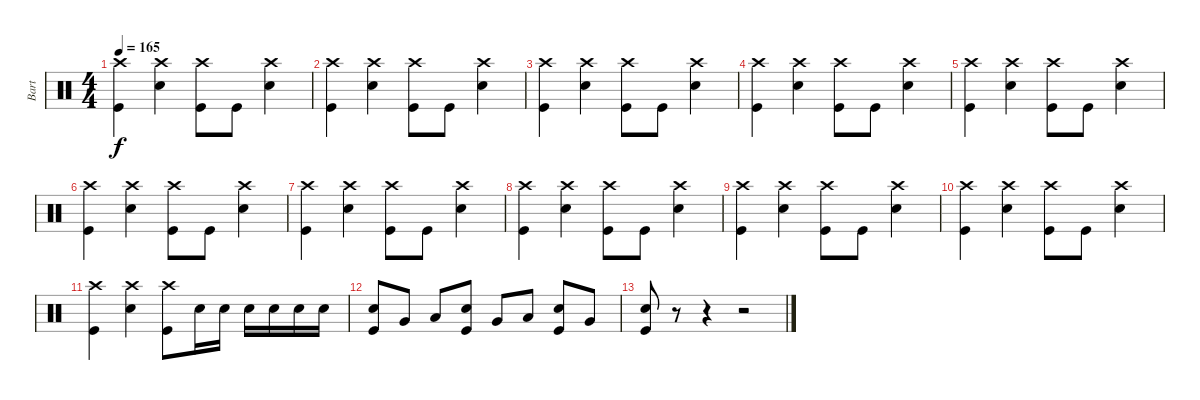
\track ("Bart" "Bart") {instrument percussion}
\staff {score}
\articulation defaults
\ts (4 4)
\tempo 165
\clef neutral
\ks c
("Kick (hit)" "Crash high (hit)").4{dy f} ("Electric Snare (hit)" "Crash high (hit)").4 ("Kick (hit)" "Crash high (hit)").8 "Kick (hit)".8 ("Electric Snare (hit)" "Crash high (hit)").4 |
("Kick (hit)" "Crash high (hit)").4 ("Electric Snare (hit)" "Crash high (hit)").4 ("Kick (hit)" "Crash high (hit)").8 "Kick (hit)".8 ("Electric Snare (hit)" "Crash high (hit)").4 |
("Kick (hit)" "Crash high (hit)").4 ("Electric Snare (hit)" "Crash high (hit)").4 ("Kick (hit)" "Crash high (hit)").8 "Kick (hit)".8 ("Electric Snare (hit)" "Crash high (hit)").4 |
("Kick (hit)" "Crash high (hit)").4 ("Electric Snare (hit)" "Crash high (hit)").4 ("Kick (hit)" "Crash high (hit)").8 "Kick (hit)".8 ("Electric Snare (hit)" "Crash high (hit)").4 |
("Kick (hit)" "Crash high (hit)").4 ("Electric Snare (hit)" "Crash high (hit)").4 ("Kick (hit)" "Crash high (hit)").8 "Kick (hit)".8 ("Electric Snare (hit)" "Crash high (hit)").4 |
("Kick (hit)" "Crash high (hit)").4 ("Electric Snare (hit)" "Crash high (hit)").4 ("Kick (hit)" "Crash high (hit)").8 "Kick (hit)".8 ("Electric Snare (hit)" "Crash high (hit)").4 |
("Kick (hit)" "Crash high (hit)").4 ("Electric Snare (hit)" "Crash high (hit)").4 ("Kick (hit)" "Crash high (hit)").8 "Kick (hit)".8 ("Electric Snare (hit)" "Crash high (hit)").4 |
("Kick (hit)" "Crash high (hit)").4 ("Electric Snare (hit)" "Crash high (hit)").4 ("Kick (hit)" "Crash high (hit)").8 "Kick (hit)".8 ("Electric Snare (hit)" "Crash high (hit)").4 |
("Kick (hit)" "Crash high (hit)").4 ("Electric Snare (hit)" "Crash high (hit)").4 ("Kick (hit)" "Crash high (hit)").8 "Kick (hit)".8 ("Electric Snare (hit)" "Crash high (hit)").4 |
("Kick (hit)" "Crash high (hit)").4 ("Electric Snare (hit)" "Crash high (hit)").4 ("Kick (hit)" "Crash high (hit)").8 "Kick (hit)".8 ("Electric Snare (hit)" "Crash high (hit)").4 |
("Kick (hit)" "Crash high (hit)").4 ("Electric Snare (hit)" "Crash high (hit)").4 ("Kick (hit)" "Crash high (hit)").8 "Electric Snare (hit)".16 "Electric Snare (hit)".16 "Electric Snare (hit)".16 "Electric Snare (hit)".16 "Electric Snare (hit)".16 "Electric Snare (hit)".16 |
("Kick (hit)" "Electric Snare (hit)").8 "Very Low Tom (hit)".8 "Low Floor Tom (hit)".8 ("Kick (hit)" "Electric Snare (hit)").8 "Very Low Tom (hit)".8 "Low Floor Tom (hit)".8 ("Kick (hit)" "Electric Snare (hit)").8 "Very Low Tom (hit)".8 |
("Kick (hit)" "Electric Snare (hit)").8 r.8 r.4 r.2
